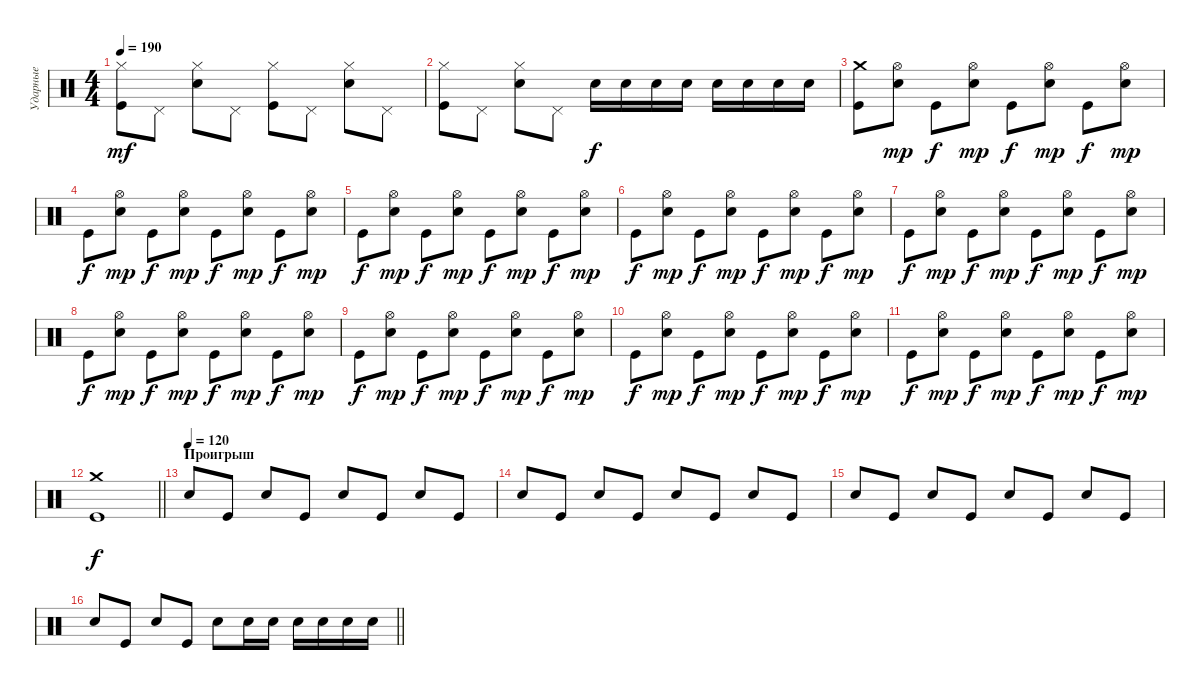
\track ("Ударные" "Ударные") {instrument percussion}
\staff {score}
\articulation defaults
\ts (4 4)
\tempo 190
\clef neutral
\ks c
("Kick (hit)" "Hi-Hat (closed)").8{dy mf} "Pedal Hi-Hat (hit)".8 ("Electric Snare (hit)" "Hi-Hat (closed)").8 "Pedal Hi-Hat (hit)".8 ("Kick (hit)" "Hi-Hat (closed)").8 "Pedal Hi-Hat (hit)".8 ("Electric Snare (hit)" "Hi-Hat (closed)").8 "Pedal Hi-Hat (hit)".8 |
("Kick (hit)" "Hi-Hat (closed)").8 "Pedal Hi-Hat (hit)".8 ("Electric Snare (hit)" "Hi-Hat (closed)").8 "Pedal Hi-Hat (hit)".8 "Electric Snare (hit)".16{dy f} "Electric Snare (hit)".16 "Electric Snare (hit)".16 "Electric Snare (hit)".16 "Electric Snare (hit)".16 "Electric Snare (hit)".16 "Electric Snare (hit)".16 "Electric Snare (hit)".16 |
("Crash medium (hit)" "Kick (hit)").8 ("Hi-Hat (open)" "Electric Snare (hit)").8{dy mp} "Kick (hit)".8{dy f} ("Hi-Hat (open)" "Electric Snare (hit)").8{dy mp} "Kick (hit)".8{dy f} ("Hi-Hat (open)" "Electric Snare (hit)").8{dy mp} "Kick (hit)".8{dy f} ("Hi-Hat (open)" "Electric Snare (hit)").8{dy mp} |
"Kick (hit)".8{dy f} ("Hi-Hat (open)" "Electric Snare (hit)").8{dy mp} "Kick (hit)".8{dy f} ("Hi-Hat (open)" "Electric Snare (hit)").8{dy mp} "Kick (hit)".8{dy f} ("Hi-Hat (open)" "Electric Snare (hit)").8{dy mp} "Kick (hit)".8{dy f} ("Hi-Hat (open)" "Electric Snare (hit)").8{dy mp} |
"Kick (hit)".8{dy f} ("Hi-Hat (open)" "Electric Snare (hit)").8{dy mp} "Kick (hit)".8{dy f} ("Hi-Hat (open)" "Electric Snare (hit)").8{dy mp} "Kick (hit)".8{dy f} ("Hi-Hat (open)" "Electric Snare (hit)").8{dy mp} "Kick (hit)".8{dy f} ("Hi-Hat (open)" "Electric Snare (hit)").8{dy mp} |
"Kick (hit)".8{dy f} ("Hi-Hat (open)" "Electric Snare (hit)").8{dy mp} "Kick (hit)".8{dy f} ("Hi-Hat (open)" "Electric Snare (hit)").8{dy mp} "Kick (hit)".8{dy f} ("Hi-Hat (open)" "Electric Snare (hit)").8{dy mp} "Kick (hit)".8{dy f} ("Hi-Hat (open)" "Electric Snare (hit)").8{dy mp} |
"Kick (hit)".8{dy f} ("Hi-Hat (open)" "Electric Snare (hit)").8{dy mp} "Kick (hit)".8{dy f} ("Hi-Hat (open)" "Electric Snare (hit)").8{dy mp} "Kick (hit)".8{dy f} ("Hi-Hat (open)" "Electric Snare (hit)").8{dy mp} "Kick (hit)".8{dy f} ("Hi-Hat (open)" "Electric Snare (hit)").8{dy mp} |
"Kick (hit)".8{dy f} ("Hi-Hat (open)" "Electric Snare (hit)").8{dy mp} "Kick (hit)".8{dy f} ("Hi-Hat (open)" "Electric Snare (hit)").8{dy mp} "Kick (hit)".8{dy f} ("Hi-Hat (open)" "Electric Snare (hit)").8{dy mp} "Kick (hit)".8{dy f} ("Hi-Hat (open)" "Electric Snare (hit)").8{dy mp} |
"Kick (hit)".8{dy f} ("Hi-Hat (open)" "Electric Snare (hit)").8{dy mp} "Kick (hit)".8{dy f} ("Hi-Hat (open)" "Electric Snare (hit)").8{dy mp} "Kick (hit)".8{dy f} ("Hi-Hat (open)" "Electric Snare (hit)").8{dy mp} "Kick (hit)".8{dy f} ("Hi-Hat (open)" "Electric Snare (hit)").8{dy mp} |
"Kick (hit)".8{dy f} ("Hi-Hat (open)" "Electric Snare (hit)").8{dy mp} "Kick (hit)".8{dy f} ("Hi-Hat (open)" "Electric Snare (hit)").8{dy mp} "Kick (hit)".8{dy f} ("Hi-Hat (open)" "Electric Snare (hit)").8{dy mp} "Kick (hit)".8{dy f} ("Hi-Hat (open)" "Electric Snare (hit)").8{dy mp} |
"Kick (hit)".8{dy f} ("Hi-Hat (open)" "Electric Snare (hit)").8{dy mp} "Kick (hit)".8{dy f} ("Hi-Hat (open)" "Electric Snare (hit)").8{dy mp} "Kick (hit)".8{dy f} ("Hi-Hat (open)" "Electric Snare (hit)").8{dy mp} "Kick (hit)".8{dy f} ("Hi-Hat (open)" "Electric Snare (hit)").8{dy mp} |
\barLineRight lightlight
("Crash medium (hit)" "Kick (hit)").1{dy f} |
\section ("" "Проигрыш")
\tempo (120)
"Electric Snare (hit)".8 "Kick (hit)".8 "Electric Snare (hit)".8 "Kick (hit)".8 "Electric Snare (hit)".8 "Kick (hit)".8 "Electric Snare (hit)".8 "Kick (hit)".8 |
"Electric Snare (hit)".8 "Kick (hit)".8 "Electric Snare (hit)".8 "Kick (hit)".8 "Electric Snare (hit)".8 "Kick (hit)".8 "Electric Snare (hit)".8 "Kick (hit)".8 |
"Electric Snare (hit)".8 "Kick (hit)".8 "Electric Snare (hit)".8 "Kick (hit)".8 "Electric Snare (hit)".8 "Kick (hit)".8 "Electric Snare (hit)".8 "Kick (hit)".8 |
\barLineRight lightlight "Electric Snare (hit)".8 "Kick (hit)".8 "Electric Snare (hit)".8 "Kick (hit)".8 "Electric Snare (hit)".8 "Electric Snare (hit)".16 "Electric Snare (hit)".16 "Electric Snare (hit)".16 "Electric Snare (hit)".16 "Electric Snare (hit)".16 "Electric Snare (hit)".16
